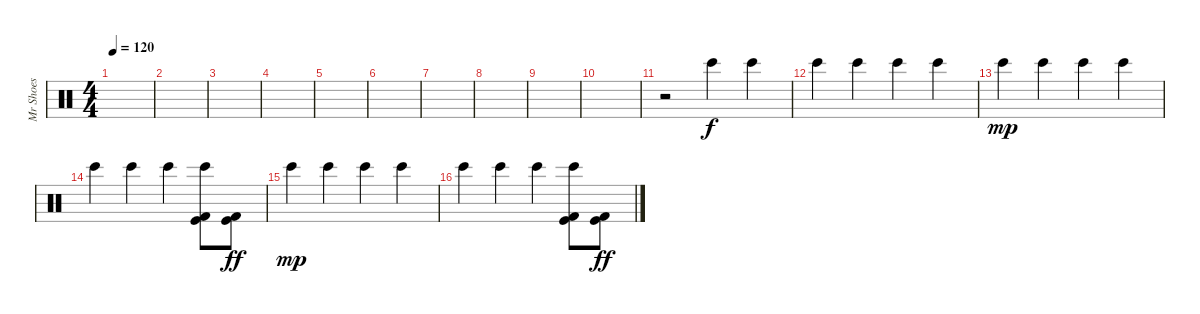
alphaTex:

\track ("Mr Shoes" "Mr Shoes") {instrument percussion}
\staff {score}
\articulation defaults
\ts (4 4)
\tempo 120
\clef neutral
\ks c
|
|
|
|
|
|
|
|
|
|
r.2 "Bongo High (hit)".4 "Bongo High (hit)".4 |
"Bongo High (hit)".4 "Bongo High (hit)".4 "Bongo High (hit)".4 "Bongo High (hit)".4 |
"Bongo High (hit)".4{dy mp} "Bongo High (hit)".4 "Bongo High (hit)".4 "Bongo High (hit)".4 |
"Bongo High (hit)".4 "Bongo High (hit)".4 "Bongo High (hit)".4 ("Kick (hit) 2" "Kick (hit)" "Bongo High (hit)").8 ("Kick (hit) 2" "Kick (hit)").8{dy ff} |
"Bongo High (hit)".4{dy mp} "Bongo High (hit)".4 "Bongo High (hit)".4 "Bongo High (hit)".4 |
"Bongo High (hit)".4 "Bongo High (hit)".4 "Bongo High (hit)".4 ("Kick (hit) 2" "Kick (hit)" "Bongo High (hit)").8 ("Kick (hit) 2" "Kick (hit)").8{dy ff}
